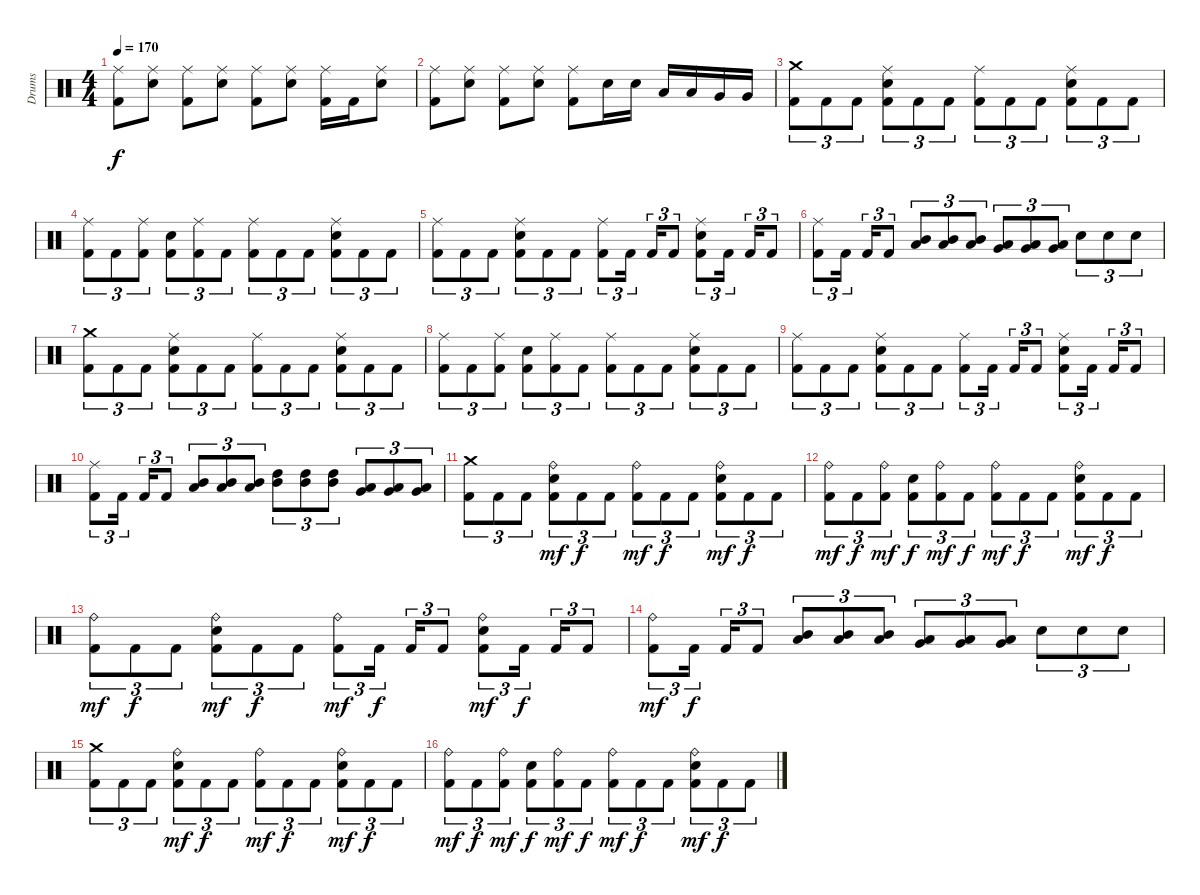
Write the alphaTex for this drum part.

\track ("Drums" "Drums") {instrument percussion}
\staff {score}
\articulation defaults
\ts (4 4)
\tempo 170
\clef neutral
\ks c
("Ride (middle)" "Kick (hit) 2").8{dy f} ("Ride (middle)" "Electric Snare (hit)").8 ("Ride (middle)" "Kick (hit) 2").8 ("Ride (middle)" "Electric Snare (hit)").8 ("Ride (middle)" "Kick (hit) 2").8 ("Ride (middle)" "Electric Snare (hit)").8 ("Ride (middle)" "Kick (hit) 2").16 "Kick (hit) 2".16 ("Ride (middle)" "Electric Snare (hit)").8 |
("Ride (middle)" "Kick (hit) 2").8 ("Ride (middle)" "Electric Snare (hit)").8 ("Ride (middle)" "Kick (hit) 2").8 ("Ride (middle)" "Electric Snare (hit)").8 ("Ride (middle)" "Kick (hit) 2").8 "Electric Snare (hit)".16 "Electric Snare (hit)".16 "Low Tom (hit)".16 "Low Tom (hit)".16 "Very Low Tom (hit)".16 "Very Low Tom (hit)".16 |
("Crash medium (hit)" "Kick (hit) 2").8{tu (3 2)} "Kick (hit) 2".8{tu (3 2)} "Kick (hit) 2".8{tu (3 2)} ("Ride (middle)" "Electric Snare (hit)" "Kick (hit) 2").8{tu (3 2)} "Kick (hit) 2".8{tu (3 2)} "Kick (hit) 2".8{tu (3 2)} ("Ride (middle)" "Kick (hit) 2").8{tu (3 2)} "Kick (hit) 2".8{tu (3 2)} "Kick (hit) 2".8{tu (3 2)} ("Ride (middle)" "Electric Snare (hit)" "Kick (hit) 2").8{tu (3 2)} "Kick (hit) 2".8{tu (3 2)} "Kick (hit) 2".8{tu (3 2)} |
("Ride (middle)" "Kick (hit) 2").8{tu (3 2)} "Kick (hit) 2".8{tu (3 2)} ("Ride (middle)" "Kick (hit) 2").8{tu (3 2)} ("Electric Snare (hit)" "Kick (hit) 2").8{tu (3 2)} ("Ride (middle)" "Kick (hit) 2").8{tu (3 2)} "Kick (hit) 2".8{tu (3 2)} ("Ride (middle)" "Kick (hit) 2").8{tu (3 2)} "Kick (hit) 2".8{tu (3 2)} "Kick (hit) 2".8{tu (3 2)} ("Ride (middle)" "Electric Snare (hit)" "Kick (hit) 2").8{tu (3 2)} "Kick (hit) 2".8{tu (3 2)} "Kick (hit) 2".8{tu (3 2)} |
("Ride (middle)" "Kick (hit) 2").8{tu (3 2)} "Kick (hit) 2".8{tu (3 2)} "Kick (hit) 2".8{tu (3 2)} ("Ride (middle)" "Electric Snare (hit)" "Kick (hit) 2").8{tu (3 2)} "Kick (hit) 2".8{tu (3 2)} "Kick (hit) 2".8{tu (3 2)} ("Ride (middle)" "Kick (hit) 2").8{tu (3 2)} "Kick (hit) 2".16{tu (3 2)} "Kick (hit) 2".16{tu (3 2)} "Kick (hit) 2".8{tu (3 2)} ("Ride (middle)" "Electric Snare (hit)" "Kick (hit) 2").8{tu (3 2)} "Kick (hit) 2".16{tu (3 2)} "Kick (hit) 2".16{tu (3 2)} "Kick (hit) 2".8{tu (3 2)} |
("Ride (middle)" "Kick (hit) 2").8{tu (3 2)} "Kick (hit) 2".16{tu (3 2)} "Kick (hit) 2".16{tu (3 2)} "Kick (hit) 2".8{tu (3 2)} ("Mid Tom (hit)" "Low Tom (hit)").8{tu (3 2)} ("Mid Tom (hit)" "Low Tom (hit)").8{tu (3 2)} ("Mid Tom (hit)" "Low Tom (hit)").8{tu (3 2)} ("Low Tom (hit)" "Very Low Tom (hit)").8{tu (3 2)} ("Low Tom (hit)" "Very Low Tom (hit)").8{tu (3 2)} ("Low Tom (hit)" "Very Low Tom (hit)").8{tu (3 2)} "Electric Snare (hit)".8{tu (3 2)} "Electric Snare (hit)".8{tu (3 2)} "Electric Snare (hit)".8{tu (3 2)} |
("Crash medium (hit)" "Kick (hit) 2").8{tu (3 2)} "Kick (hit) 2".8{tu (3 2)} "Kick (hit) 2".8{tu (3 2)} ("Ride (middle)" "Electric Snare (hit)" "Kick (hit) 2").8{tu (3 2)} "Kick (hit) 2".8{tu (3 2)} "Kick (hit) 2".8{tu (3 2)} ("Ride (middle)" "Kick (hit) 2").8{tu (3 2)} "Kick (hit) 2".8{tu (3 2)} "Kick (hit) 2".8{tu (3 2)} ("Ride (middle)" "Electric Snare (hit)" "Kick (hit) 2").8{tu (3 2)} "Kick (hit) 2".8{tu (3 2)} "Kick (hit) 2".8{tu (3 2)} |
("Ride (middle)" "Kick (hit) 2").8{tu (3 2)} "Kick (hit) 2".8{tu (3 2)} ("Ride (middle)" "Kick (hit) 2").8{tu (3 2)} ("Electric Snare (hit)" "Kick (hit) 2").8{tu (3 2)} ("Ride (middle)" "Kick (hit) 2").8{tu (3 2)} "Kick (hit) 2".8{tu (3 2)} ("Ride (middle)" "Kick (hit) 2").8{tu (3 2)} "Kick (hit) 2".8{tu (3 2)} "Kick (hit) 2".8{tu (3 2)} ("Ride (middle)" "Electric Snare (hit)" "Kick (hit) 2").8{tu (3 2)} "Kick (hit) 2".8{tu (3 2)} "Kick (hit) 2".8{tu (3 2)} |
("Ride (middle)" "Kick (hit) 2").8{tu (3 2)} "Kick (hit) 2".8{tu (3 2)} "Kick (hit) 2".8{tu (3 2)} ("Ride (middle)" "Electric Snare (hit)" "Kick (hit) 2").8{tu (3 2)} "Kick (hit) 2".8{tu (3 2)} "Kick (hit) 2".8{tu (3 2)} ("Ride (middle)" "Kick (hit) 2").8{tu (3 2)} "Kick (hit) 2".16{tu (3 2)} "Kick (hit) 2".16{tu (3 2)} "Kick (hit) 2".8{tu (3 2)} ("Ride (middle)" "Electric Snare (hit)" "Kick (hit) 2").8{tu (3 2)} "Kick (hit) 2".16{tu (3 2)} "Kick (hit) 2".16{tu (3 2)} "Kick (hit) 2".8{tu (3 2)} |
("Ride (middle)" "Kick (hit) 2").8{tu (3 2)} "Kick (hit) 2".16{tu (3 2)} "Kick (hit) 2".16{tu (3 2)} "Kick (hit) 2".8{tu (3 2)} ("Mid Tom (hit)" "Low Tom (hit)").8{tu (3 2)} ("Mid Tom (hit)" "Low Tom (hit)").8{tu (3 2)} ("Mid Tom (hit)" "Low Tom (hit)").8{tu (3 2)} ("High Tom (hit)" "Mid Tom (hit)").8{tu (3 2)} ("High Tom (hit)" "Mid Tom (hit)").8{tu (3 2)} ("High Tom (hit)" "Mid Tom (hit)").8{tu (3 2)} ("Low Tom (hit)" "Very Low Tom (hit)").8{tu (3 2)} ("Low Tom (hit)" "Very Low Tom (hit)").8{tu (3 2)} ("Low Tom (hit)" "Very Low Tom (hit)").8{tu (3 2)} |
("Crash medium (hit)" "Kick (hit) 2").8{tu (3 2)} "Kick (hit) 2".8{tu (3 2)} "Kick (hit) 2".8{tu (3 2)} ("Ride (bell)" "Electric Snare (hit)" "Kick (hit) 2").8{tu (3 2) dy mf} "Kick (hit) 2".8{tu (3 2) dy f} "Kick (hit) 2".8{tu (3 2)} ("Ride (bell)" "Kick (hit) 2").8{tu (3 2) dy mf} "Kick (hit) 2".8{tu (3 2) dy f} "Kick (hit) 2".8{tu (3 2)} ("Ride (bell)" "Electric Snare (hit)" "Kick (hit) 2").8{tu (3 2) dy mf} "Kick (hit) 2".8{tu (3 2) dy f} "Kick (hit) 2".8{tu (3 2)} |
("Ride (bell)" "Kick (hit) 2").8{tu (3 2) dy mf} "Kick (hit) 2".8{tu (3 2) dy f} ("Ride (bell)" "Kick (hit) 2").8{tu (3 2) dy mf} ("Electric Snare (hit)" "Kick (hit) 2").8{tu (3 2) dy f} ("Ride (bell)" "Kick (hit) 2").8{tu (3 2) dy mf} "Kick (hit) 2".8{tu (3 2) dy f} ("Ride (bell)" "Kick (hit) 2").8{tu (3 2) dy mf} "Kick (hit) 2".8{tu (3 2) dy f} "Kick (hit) 2".8{tu (3 2)} ("Ride (bell)" "Electric Snare (hit)" "Kick (hit) 2").8{tu (3 2) dy mf} "Kick (hit) 2".8{tu (3 2) dy f} "Kick (hit) 2".8{tu (3 2)} |
("Ride (bell)" "Kick (hit) 2").8{tu (3 2) dy mf} "Kick (hit) 2".8{tu (3 2) dy f} "Kick (hit) 2".8{tu (3 2)} ("Ride (bell)" "Electric Snare (hit)" "Kick (hit) 2").8{tu (3 2) dy mf} "Kick (hit) 2".8{tu (3 2) dy f} "Kick (hit) 2".8{tu (3 2)} ("Ride (bell)" "Kick (hit) 2").8{tu (3 2) dy mf} "Kick (hit) 2".16{tu (3 2) dy f} "Kick (hit) 2".16{tu (3 2)} "Kick (hit) 2".8{tu (3 2)} ("Ride (bell)" "Electric Snare (hit)" "Kick (hit) 2").8{tu (3 2) dy mf} "Kick (hit) 2".16{tu (3 2) dy f} "Kick (hit) 2".16{tu (3 2)} "Kick (hit) 2".8{tu (3 2)} |
("Ride (bell)" "Kick (hit) 2").8{tu (3 2) dy mf} "Kick (hit) 2".16{tu (3 2) dy f} "Kick (hit) 2".16{tu (3 2)} "Kick (hit) 2".8{tu (3 2)} ("Mid Tom (hit)" "Low Tom (hit)").8{tu (3 2)} ("Mid Tom (hit)" "Low Tom (hit)").8{tu (3 2)} ("Mid Tom (hit)" "Low Tom (hit)").8{tu (3 2)} ("Low Tom (hit)" "Very Low Tom (hit)").8{tu (3 2)} ("Low Tom (hit)" "Very Low Tom (hit)").8{tu (3 2)} ("Low Tom (hit)" "Very Low Tom (hit)").8{tu (3 2)} "Electric Snare (hit)".8{tu (3 2)} "Electric Snare (hit)".8{tu (3 2)} "Electric Snare (hit)".8{tu (3 2)} |
("Crash medium (hit)" "Kick (hit) 2").8{tu (3 2)} "Kick (hit) 2".8{tu (3 2)} "Kick (hit) 2".8{tu (3 2)} ("Ride (bell)" "Electric Snare (hit)" "Kick (hit) 2").8{tu (3 2) dy mf} "Kick (hit) 2".8{tu (3 2) dy f} "Kick (hit) 2".8{tu (3 2)} ("Ride (bell)" "Kick (hit) 2").8{tu (3 2) dy mf} "Kick (hit) 2".8{tu (3 2) dy f} "Kick (hit) 2".8{tu (3 2)} ("Ride (bell)" "Electric Snare (hit)" "Kick (hit) 2").8{tu (3 2) dy mf} "Kick (hit) 2".8{tu (3 2) dy f} "Kick (hit) 2".8{tu (3 2)} |
("Ride (bell)" "Kick (hit) 2").8{tu (3 2) dy mf} "Kick (hit) 2".8{tu (3 2) dy f} ("Ride (bell)" "Kick (hit) 2").8{tu (3 2) dy mf} ("Electric Snare (hit)" "Kick (hit) 2").8{tu (3 2) dy f} ("Ride (bell)" "Kick (hit) 2").8{tu (3 2) dy mf} "Kick (hit) 2".8{tu (3 2) dy f} ("Ride (bell)" "Kick (hit) 2").8{tu (3 2) dy mf} "Kick (hit) 2".8{tu (3 2) dy f} "Kick (hit) 2".8{tu (3 2)} ("Ride (bell)" "Electric Snare (hit)" "Kick (hit) 2").8{tu (3 2) dy mf} "Kick (hit) 2".8{tu (3 2) dy f} "Kick (hit) 2".8{tu (3 2)}
